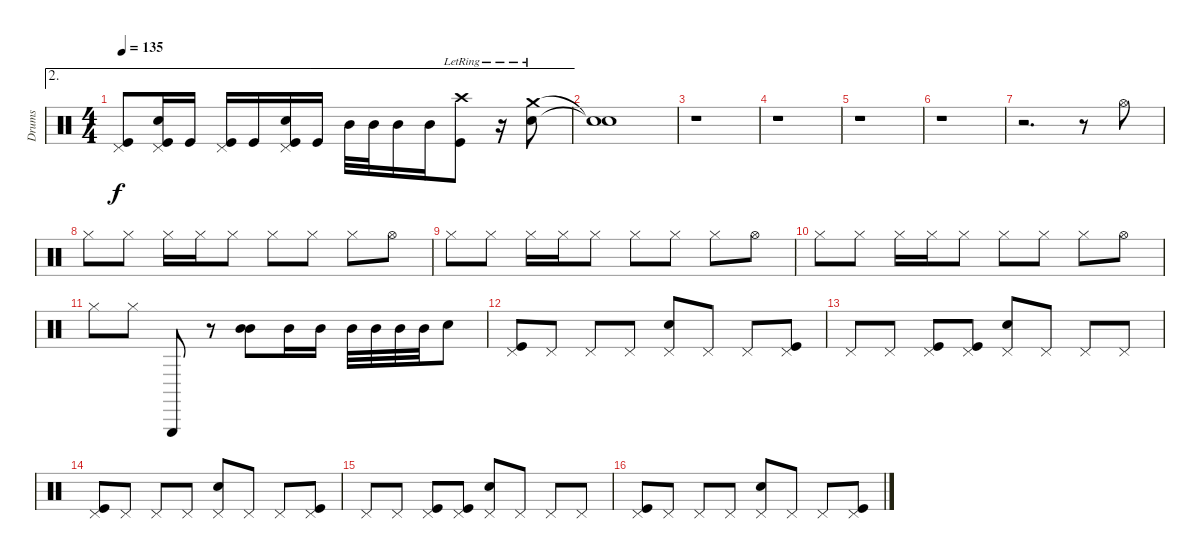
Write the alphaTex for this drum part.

\track ("Drums" "Drums") {instrument percussion}
\staff {score}
\articulation defaults
\ae 2
\ts (4 4)
\tempo 135
\clef neutral
\ks c
("Pedal Hi-Hat (hit)" "Kick (hit)").8{dy f} ("Pedal Hi-Hat (hit)" "Snare (hit) 2" "Kick (hit)").16 "Kick (hit)".16 ("Pedal Hi-Hat (hit)" "Kick (hit)").16 "Kick (hit)".16 ("Pedal Hi-Hat (hit)" "Snare (hit) 2" "Kick (hit)").16 "Kick (hit)".16 "Mid Tom (hit)".32 "Mid Tom (hit)".32 "Mid Tom (hit)".16 "Mid Tom (hit)".16 ("Crash high (hit)"{lr} "Kick (hit)").8 r.16 ("Crash medium (hit)"{lr} "Snare (hit) 2").8 |
("Snare (hit)"{t} "Snare (hit)"{t}).1 |
r.1 |
r.1 |
r.1 |
r.1 |
r.2{d} r.8 "Hi-Hat (open)".8 |
"Hi-Hat (closed)".8 "Hi-Hat (closed)".8 "Hi-Hat (closed)".16 "Hi-Hat (closed)".16 "Hi-Hat (closed)".8 "Hi-Hat (closed)".8 "Hi-Hat (closed)".8 "Hi-Hat (closed)".8 "Hi-Hat (open)".8 |
"Hi-Hat (closed)".8 "Hi-Hat (closed)".8 "Hi-Hat (closed)".16 "Hi-Hat (closed)".16 "Hi-Hat (closed)".8 "Hi-Hat (closed)".8 "Hi-Hat (closed)".8 "Hi-Hat (closed)".8 "Hi-Hat (open)".8 |
"Hi-Hat (closed)".8 "Hi-Hat (closed)".8 "Hi-Hat (closed)".16 "Hi-Hat (closed)".16 "Hi-Hat (closed)".8 "Hi-Hat (closed)".8 "Hi-Hat (closed)".8 "Hi-Hat (closed)".8 "Hi-Hat (open)".8 |
"Hi-Hat (closed)".8 "Hi-Hat (closed)".8 "Triangle (hit)".8 r.8 ("Mid Tom (hit)" "Mid Tom (hit)").8{bd 120} "Mid Tom (hit)".16 "Mid Tom (hit)".16 "Mid Tom (hit)".32 "Mid Tom (hit)".32 "Mid Tom (hit)".32 "Mid Tom (hit)".32 "Snare (hit) 2".8 |
("Pedal Hi-Hat (hit)" "Kick (hit)").8 "Pedal Hi-Hat (hit)".8 "Pedal Hi-Hat (hit)".8 "Pedal Hi-Hat (hit)".8 ("Pedal Hi-Hat (hit)" "Snare (hit) 2").8 "Pedal Hi-Hat (hit)".8 "Pedal Hi-Hat (hit)".8 ("Pedal Hi-Hat (hit)" "Kick (hit)").8 |
"Pedal Hi-Hat (hit)".8 "Pedal Hi-Hat (hit)".8 ("Pedal Hi-Hat (hit)" "Kick (hit)").8 ("Pedal Hi-Hat (hit)" "Kick (hit)").8 ("Pedal Hi-Hat (hit)" "Snare (hit) 2").8 "Pedal Hi-Hat (hit)".8 "Pedal Hi-Hat (hit)".8 "Pedal Hi-Hat (hit)".8 |
("Pedal Hi-Hat (hit)" "Kick (hit)").8 "Pedal Hi-Hat (hit)".8 "Pedal Hi-Hat (hit)".8 "Pedal Hi-Hat (hit)".8 ("Pedal Hi-Hat (hit)" "Snare (hit) 2").8 "Pedal Hi-Hat (hit)".8 "Pedal Hi-Hat (hit)".8 ("Pedal Hi-Hat (hit)" "Kick (hit)").8 |
"Pedal Hi-Hat (hit)".8 "Pedal Hi-Hat (hit)".8 ("Pedal Hi-Hat (hit)" "Kick (hit)").8 ("Pedal Hi-Hat (hit)" "Kick (hit)").8 ("Pedal Hi-Hat (hit)" "Snare (hit) 2").8 "Pedal Hi-Hat (hit)".8 "Pedal Hi-Hat (hit)".8 "Pedal Hi-Hat (hit)".8 |
("Pedal Hi-Hat (hit)" "Kick (hit)").8 "Pedal Hi-Hat (hit)".8 "Pedal Hi-Hat (hit)".8 "Pedal Hi-Hat (hit)".8 ("Pedal Hi-Hat (hit)" "Snare (hit) 2").8 "Pedal Hi-Hat (hit)".8 "Pedal Hi-Hat (hit)".8 ("Pedal Hi-Hat (hit)" "Kick (hit)").8
